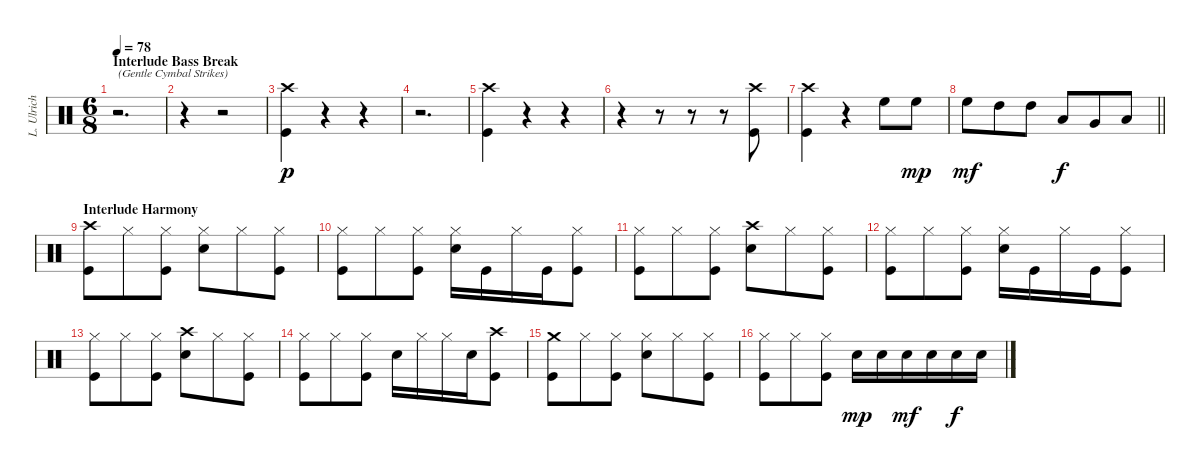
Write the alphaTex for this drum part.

\track ("L. Ulrich" "L. Ulrich") {instrument percussion}
\staff {score}
\articulation defaults
\ts (6 8)
\section ("" "Interlude Bass Break")
\tempo 78
\clef neutral
\ks c
r.2{d txt "(Gentle Cymbal Strikes)" dy ppp} |
r.4 r.2 |
("Crash high (hit)" "Kick (hit)").4{dy p} r.4 r.4 |
r.2{d} |
("Crash high (hit)" "Kick (hit)").4 r.4 r.4 |
r.4 r.8 r.8 r.8 ("Crash high (hit)" "Kick (hit)").8 |
("Crash high (hit)" "Kick (hit)").4 r.4 "High Floor Tom (hit)".8 "High Floor Tom (hit)".8{dy mp} |
\barLineRight lightlight "High Floor Tom (hit)".8{dy mf} "High Tom (hit)".8 "High Tom (hit)".8 "Low Tom (hit)".8{dy f} "Very Low Tom (hit)".8 "Low Floor Tom (hit)".8
|
\section ("" "Interlude Harmony")
("Crash high (hit)" "Kick (hit)").8 "Hi-Hat (closed)".8 ("Hi-Hat (closed)" "Kick (hit)").8 ("Hi-Hat (closed)" "Snare (hit) 2").8 "Hi-Hat (closed)".8 ("Hi-Hat (closed)" "Kick (hit)").8 |
("Hi-Hat (closed)" "Kick (hit)").8 "Hi-Hat (closed)".8 ("Hi-Hat (closed)" "Kick (hit)").8 ("Hi-Hat (closed)" "Snare (hit) 2").16 "Kick (hit)".16 "Hi-Hat (closed)".16 "Kick (hit)".16 ("Hi-Hat (closed)" "Kick (hit)").8 |
("Hi-Hat (closed)" "Kick (hit)").8 "Hi-Hat (closed)".8 ("Hi-Hat (closed)" "Kick (hit)").8 ("Crash high (hit)" "Snare (hit) 2").8 "Hi-Hat (closed)".8 ("Hi-Hat (closed)" "Kick (hit)").8 |
("Hi-Hat (closed)" "Kick (hit)").8 "Hi-Hat (closed)".8 ("Hi-Hat (closed)" "Kick (hit)").8 ("Hi-Hat (closed)" "Snare (hit) 2").16 "Kick (hit)".16 "Hi-Hat (closed)".16 "Kick (hit)".16 ("Hi-Hat (closed)" "Kick (hit)").8 |
("Hi-Hat (closed)" "Kick (hit)").8 "Hi-Hat (closed)".8 ("Hi-Hat (closed)" "Kick (hit)").8 ("Crash high (hit)" "Snare (hit) 2").8 "Hi-Hat (closed)".8 ("Hi-Hat (closed)" "Kick (hit)").8 |
("Hi-Hat (closed)" "Kick (hit)").8 "Hi-Hat (closed)".8 ("Hi-Hat (closed)" "Kick (hit)").8 "Snare (hit) 2".16 "Hi-Hat (closed)".16 "Hi-Hat (closed)".16 "Snare (hit) 2".16 ("Crash high (hit)" "Kick (hit)").8 |
("Crash medium (hit)" "Kick (hit)").8 "Hi-Hat (closed)".8 ("Hi-Hat (closed)" "Kick (hit)").8 ("Hi-Hat (closed)" "Snare (hit) 2").8 "Hi-Hat (closed)".8 ("Hi-Hat (closed)" "Kick (hit)").8 |
("Hi-Hat (closed)" "Kick (hit)").8 "Hi-Hat (closed)".8 ("Hi-Hat (closed)" "Kick (hit)").8 "Snare (hit) 2".16{dy mp} "Snare (hit) 2".16 "Snare (hit) 2".16{dy mf} "Snare (hit) 2".16 "Snare (hit) 2".16{dy f} "Snare (hit) 2".16
